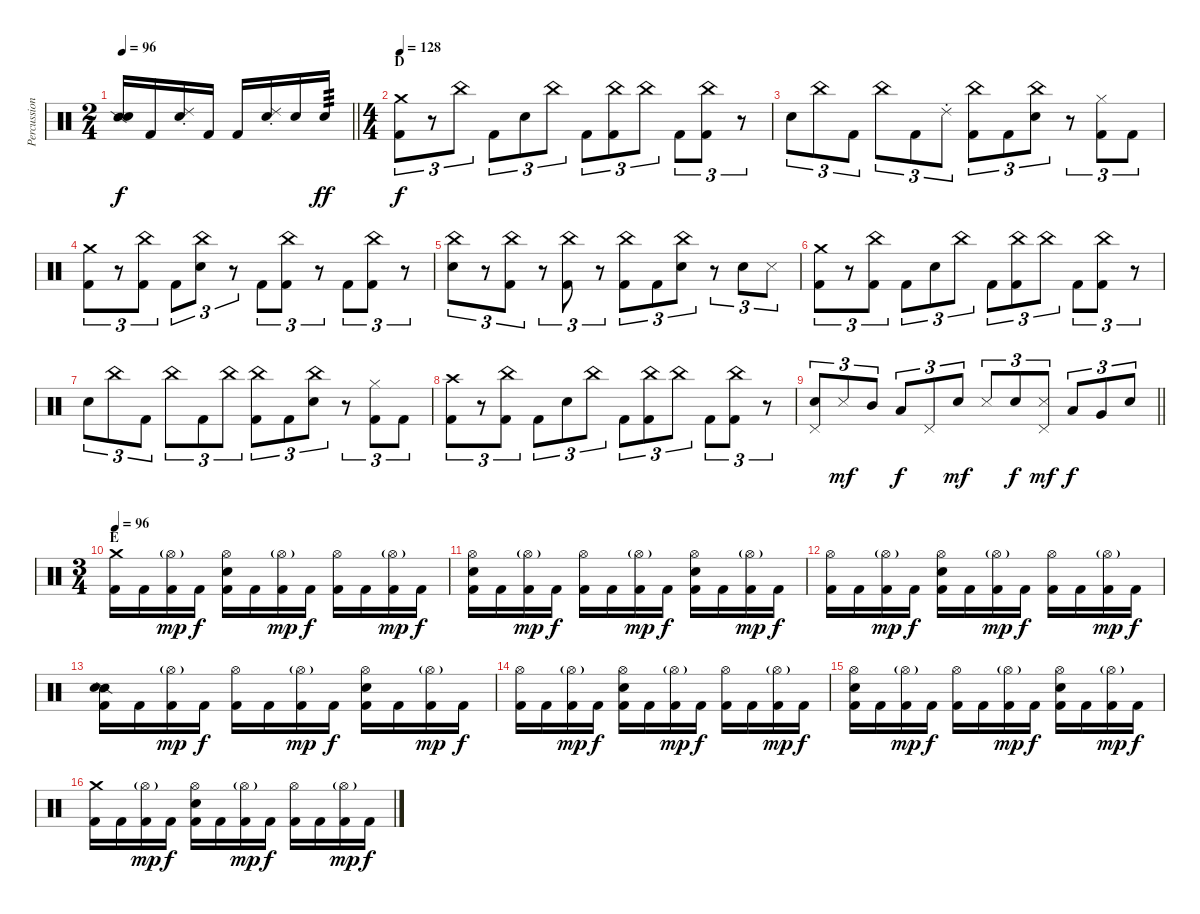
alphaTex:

\track ("Percussion" "Percussion") {instrument percussion}
\staff {score}
\articulation defaults
\ts (2 4)
\tempo 96
\clef neutral
\barLineRight lightlight
\ks c
("Snare (side stick) 2" "Snare (hit) 2").16{dy f} "Kick (hit) 2".16 ("Ride (choke) 2" "Snare (hit) 2").16 "Kick (hit) 2".16 "Kick (hit) 2".16 ("Ride (choke) 2" "Snare (hit) 2").16 "Snare (hit) 2".16 "Snare (hit) 2".16{tp 3 dy ff} |
\ts (4 4)
\section ("" "D")
\tempo 128
("Crash medium (hit)" "Kick (hit) 2").8{tu (3 2) dy f} r.8{tu (3 2)} "China (hit)".8{tu (3 2)} "Kick (hit) 2".8{tu (3 2)} "Snare (hit) 2".8{tu (3 2)} "China (hit)".8{tu (3 2)} "Kick (hit) 2".8{tu (3 2)} ("China (hit)" "Kick (hit) 2").8{tu (3 2)} "China (hit)".8{tu (3 2)} "Kick (hit) 2".8{tu (3 2)} ("China (hit)" "Kick (hit) 2").8{tu (3 2)} r.8{tu (3 2)} |
"Snare (hit) 2".8{tu (3 2)} "China (hit)".8{tu (3 2)} "Kick (hit) 2".8{tu (3 2)} "China (hit)".8{tu (3 2)} "Kick (hit) 2".8{tu (3 2)} "Ride (choke) 2".8{tu (3 2)} ("China (hit)" "Kick (hit) 2").8{tu (3 2)} "Kick (hit) 2".8{tu (3 2)} ("China (hit)" "Snare (hit) 2").8{tu (3 2)} r.8{tu (3 2)} ("Hi-Hat (closed)" "Kick (hit) 2").8{tu (3 2)} "Kick (hit) 2".8{tu (3 2)} |
("Crash medium (hit)" "Kick (hit) 2").8{tu (3 2)} r.8{tu (3 2)} ("China (hit)" "Kick (hit) 2").8{tu (3 2)} "Kick (hit) 2".8{tu (3 2)} ("China (hit)" "Snare (hit) 2").8{tu (3 2)} r.8{tu (3 2)} "Kick (hit) 2".8{tu (3 2)} ("China (hit)" "Kick (hit) 2").8{tu (3 2)} r.8{tu (3 2)} "Kick (hit) 2".8{tu (3 2)} ("China (hit)" "Kick (hit) 2").8{tu (3 2)} r.8{tu (3 2)} |
("China (hit)" "Snare (hit) 2").8{tu (3 2)} r.8{tu (3 2)} ("China (hit)" "Kick (hit) 2").8{tu (3 2)} r.8{tu (3 2)} ("China (hit)" "Kick (hit) 2").8{tu (3 2)} r.8{tu (3 2)} ("China (hit)" "Kick (hit) 2").8{tu (3 2)} "Kick (hit) 2".8{tu (3 2)} ("China (hit)" "Snare (hit) 2").8{tu (3 2)} r.8{tu (3 2)} "Snare (hit) 2".8{tu (3 2)} "Metronome (hit)".8{tu (3 2)} |
("Crash medium (hit)" "Kick (hit) 2").8{tu (3 2)} r.8{tu (3 2)} ("China (hit)" "Kick (hit) 2").8{tu (3 2)} "Kick (hit) 2".8{tu (3 2)} "Snare (hit) 2".8{tu (3 2)} "China (hit)".8{tu (3 2)} "Kick (hit) 2".8{tu (3 2)} ("China (hit)" "Kick (hit) 2").8{tu (3 2)} "China (hit)".8{tu (3 2)} "Kick (hit) 2".8{tu (3 2)} ("China (hit)" "Kick (hit) 2").8{tu (3 2)} r.8{tu (3 2)} |
"Snare (hit) 2".8{tu (3 2)} "China (hit)".8{tu (3 2)} "Kick (hit) 2".8{tu (3 2)} "China (hit)".8{tu (3 2)} "Kick (hit) 2".8{tu (3 2)} "China (hit)".8{tu (3 2)} ("China (hit)" "Kick (hit) 2").8{tu (3 2)} "Kick (hit) 2".8{tu (3 2)} ("China (hit)" "Snare (hit) 2").8{tu (3 2)} r.8{tu (3 2)} ("Hi-Hat (closed)" "Kick (hit) 2").8{tu (3 2)} "Kick (hit) 2".8{tu (3 2)} |
("Crash high (hit)" "Kick (hit) 2").8{tu (3 2)} r.8{tu (3 2)} ("China (hit)" "Kick (hit) 2").8{tu (3 2)} "Kick (hit) 2".8{tu (3 2)} "Snare (hit) 2".8{tu (3 2)} "China (hit)".8{tu (3 2)} "Kick (hit) 2".8{tu (3 2)} ("China (hit)" "Kick (hit) 2").8{tu (3 2)} "China (hit)".8{tu (3 2)} "Kick (hit) 2".8{tu (3 2)} ("China (hit)" "Kick (hit) 2").8{tu (3 2)} r.8{tu (3 2)} |
\barLineRight lightlight
("Pedal Hi-Hat (hit)" "Snare (hit) 2").8{tu (3 2)} "Metronome (hit)".8{tu (3 2) dy mf} "Mid Tom (hit)".8{tu (3 2)} "Low Tom (hit)".8{tu (3 2) dy f} "Pedal Hi-Hat (hit)".8{tu (3 2)} "Snare (hit) 2".8{tu (3 2) dy mf} "Metronome (hit)".8{tu (3 2)} "Snare (hit) 2".8{tu (3 2) dy f} ("Pedal Hi-Hat (hit)" "Metronome (hit)").8{tu (3 2) dy mf} "Low Tom (hit)".8{tu (3 2) dy f} "Very Low Tom (hit)".8{tu (3 2)} "Snare (hit) 2".8{tu (3 2)} |
\ts (3 4)
\section ("" "E")
\tempo 96
("Crash medium (hit)" "Kick (hit) 2").16 "Kick (hit) 2".16 ("Hi-Hat (open)"{g} "Kick (hit) 2").16{dy mp} "Kick (hit) 2".16{dy f} ("Hi-Hat (open)" "Snare (hit) 2" "Kick (hit) 2").16 "Kick (hit) 2".16 ("Hi-Hat (open)"{g} "Kick (hit) 2").16{dy mp} "Kick (hit) 2".16{dy f} ("Hi-Hat (open)" "Kick (hit) 2").16 "Kick (hit) 2".16 ("Hi-Hat (open)"{g} "Kick (hit) 2").16{dy mp} "Kick (hit) 2".16{dy f} |
("Hi-Hat (open)" "Snare (hit) 2" "Kick (hit) 2").16 "Kick (hit) 2".16 ("Hi-Hat (open)"{g} "Kick (hit) 2").16{dy mp} "Kick (hit) 2".16{dy f} ("Hi-Hat (open)" "Kick (hit) 2").16 "Kick (hit) 2".16 ("Hi-Hat (open)"{g} "Kick (hit) 2").16{dy mp} "Kick (hit) 2".16{dy f} ("Hi-Hat (open)" "Snare (hit) 2" "Kick (hit) 2").16 "Kick (hit) 2".16 ("Hi-Hat (open)"{g} "Kick (hit) 2").16{dy mp} "Kick (hit) 2".16{dy f} |
("Hi-Hat (open)" "Kick (hit) 2").16 "Kick (hit) 2".16 ("Hi-Hat (open)"{g} "Kick (hit) 2").16{dy mp} "Kick (hit) 2".16{dy f} ("Hi-Hat (open)" "Snare (hit) 2" "Kick (hit) 2").16 "Kick (hit) 2".16 ("Hi-Hat (open)"{g} "Kick (hit) 2").16{dy mp} "Kick (hit) 2".16{dy f} ("Hi-Hat (open)" "Kick (hit) 2").16 "Kick (hit) 2".16 ("Hi-Hat (open)"{g} "Kick (hit) 2").16{dy mp} "Kick (hit) 2".16{dy f} |
("Snare (side stick) 2" "Snare (hit) 2" "Kick (hit) 2").16 "Kick (hit) 2".16 ("Hi-Hat (open)"{g} "Kick (hit) 2").16{dy mp} "Kick (hit) 2".16{dy f} ("Hi-Hat (open)" "Kick (hit) 2").16 "Kick (hit) 2".16 ("Hi-Hat (open)"{g} "Kick (hit) 2").16{dy mp} "Kick (hit) 2".16{dy f} ("Hi-Hat (open)" "Snare (hit) 2" "Kick (hit) 2").16 "Kick (hit) 2".16 ("Hi-Hat (open)"{g} "Kick (hit) 2").16{dy mp} "Kick (hit) 2".16{dy f} |
("Hi-Hat (open)" "Kick (hit) 2").16 "Kick (hit) 2".16 ("Hi-Hat (open)"{g} "Kick (hit) 2").16{dy mp} "Kick (hit) 2".16{dy f} ("Hi-Hat (open)" "Snare (hit) 2" "Kick (hit) 2").16 "Kick (hit) 2".16 ("Hi-Hat (open)"{g} "Kick (hit) 2").16{dy mp} "Kick (hit) 2".16{dy f} ("Hi-Hat (open)" "Kick (hit) 2").16 "Kick (hit) 2".16 ("Hi-Hat (open)"{g} "Kick (hit) 2").16{dy mp} "Kick (hit) 2".16{dy f} |
("Hi-Hat (open)" "Snare (hit) 2" "Kick (hit) 2").16 "Kick (hit) 2".16 ("Hi-Hat (open)"{g} "Kick (hit) 2").16{dy mp} "Kick (hit) 2".16{dy f} ("Hi-Hat (open)" "Kick (hit) 2").16 "Kick (hit) 2".16 ("Hi-Hat (open)"{g} "Kick (hit) 2").16{dy mp} "Kick (hit) 2".16{dy f} ("Hi-Hat (open)" "Snare (hit) 2" "Kick (hit) 2").16 "Kick (hit) 2".16 ("Hi-Hat (open)"{g} "Kick (hit) 2").16{dy mp} "Kick (hit) 2".16{dy f} |
("Crash medium (hit)" "Kick (hit) 2").16 "Kick (hit) 2".16 ("Hi-Hat (open)"{g} "Kick (hit) 2").16{dy mp} "Kick (hit) 2".16{dy f} ("Hi-Hat (open)" "Snare (hit) 2" "Kick (hit) 2").16 "Kick (hit) 2".16 ("Hi-Hat (open)"{g} "Kick (hit) 2").16{dy mp} "Kick (hit) 2".16{dy f} ("Hi-Hat (open)" "Kick (hit) 2").16 "Kick (hit) 2".16 ("Hi-Hat (open)"{g} "Kick (hit) 2").16{dy mp} "Kick (hit) 2".16{dy f}
